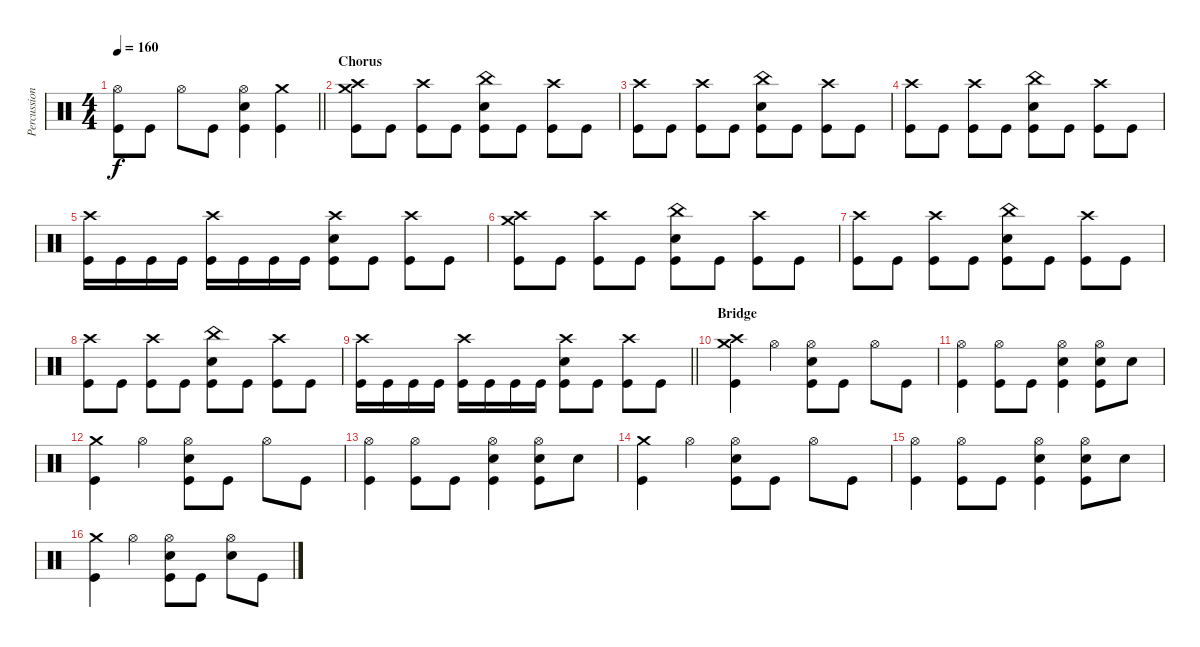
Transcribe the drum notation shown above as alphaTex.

\track ("Percussion" "Percussion") {instrument percussion}
\staff {score}
\articulation defaults
\ts (4 4)
\tempo 160
\clef neutral
\barLineRight lightlight
\ks c
("Hi-Hat (open)" "Kick (hit)").8{dy f} "Kick (hit)".8 "Hi-Hat (open)".8 "Kick (hit)".8 ("Hi-Hat (open)" "Electric Snare (hit)" "Kick (hit)").4 ("Crash medium (hit)" "Kick (hit)").4 |
\section ("" "Chorus")
("Crash medium (hit)" "Crash high (hit)" "Kick (hit)").8 "Kick (hit)".8 ("Crash high (hit)" "Kick (hit)").8 "Kick (hit)".8 ("China (hit)" "Electric Snare (hit)" "Kick (hit)").8 "Kick (hit)".8 ("Crash high (hit)" "Kick (hit)").8 "Kick (hit)".8 |
("Crash high (hit)" "Kick (hit)").8 "Kick (hit)".8 ("Crash high (hit)" "Kick (hit)").8 "Kick (hit)".8 ("China (hit)" "Electric Snare (hit)" "Kick (hit)").8 "Kick (hit)".8 ("Crash high (hit)" "Kick (hit)").8 "Kick (hit)".8 |
("Crash high (hit)" "Kick (hit)").8 "Kick (hit)".8 ("Crash high (hit)" "Kick (hit)").8 "Kick (hit)".8 ("China (hit)" "Electric Snare (hit)" "Kick (hit)").8 "Kick (hit)".8 ("Crash high (hit)" "Kick (hit)").8 "Kick (hit)".8 |
("Crash high (hit)" "Kick (hit)").16 "Kick (hit)".16 "Kick (hit)".16 "Kick (hit)".16 ("Crash high (hit)" "Kick (hit)").16 "Kick (hit)".16 "Kick (hit)".16 "Kick (hit)".16 ("Crash high (hit)" "Electric Snare (hit)" "Kick (hit)").8 "Kick (hit)".8 ("Crash high (hit)" "Kick (hit)").8 "Kick (hit)".8 |
("Crash medium (hit)" "Crash high (hit)" "Kick (hit)").8 "Kick (hit)".8 ("Crash high (hit)" "Kick (hit)").8 "Kick (hit)".8 ("China (hit)" "Electric Snare (hit)" "Kick (hit)").8 "Kick (hit)".8 ("Crash high (hit)" "Kick (hit)").8 "Kick (hit)".8 |
("Crash high (hit)" "Kick (hit)").8 "Kick (hit)".8 ("Crash high (hit)" "Kick (hit)").8 "Kick (hit)".8 ("China (hit)" "Electric Snare (hit)" "Kick (hit)").8 "Kick (hit)".8 ("Crash high (hit)" "Kick (hit)").8 "Kick (hit)".8 |
("Crash high (hit)" "Kick (hit)").8 "Kick (hit)".8 ("Crash high (hit)" "Kick (hit)").8 "Kick (hit)".8 ("China (hit)" "Electric Snare (hit)" "Kick (hit)").8 "Kick (hit)".8 ("Crash high (hit)" "Kick (hit)").8 "Kick (hit)".8 |
\barLineRight lightlight
("Crash high (hit)" "Kick (hit)").16 "Kick (hit)".16 "Kick (hit)".16 "Kick (hit)".16 ("Crash high (hit)" "Kick (hit)").16 "Kick (hit)".16 "Kick (hit)".16 "Kick (hit)".16 ("Crash high (hit)" "Electric Snare (hit)" "Kick (hit)").8 "Kick (hit)".8 ("Crash high (hit)" "Kick (hit)").8 "Kick (hit)".8 |
\section ("" "Bridge")
("Crash high (hit)" "Crash medium (hit)" "Kick (hit)").4 "Hi-Hat (open)".4 ("Hi-Hat (open)" "Electric Snare (hit)" "Kick (hit)").8 "Kick (hit)".8 "Hi-Hat (open)".8 "Kick (hit)".8 |
("Hi-Hat (open)" "Kick (hit)").4 ("Hi-Hat (open)" "Kick (hit)").8 "Kick (hit)".8 ("Hi-Hat (open)" "Electric Snare (hit)" "Kick (hit)").4 ("Hi-Hat (open)" "Electric Snare (hit)" "Kick (hit)").8 "Electric Snare (hit)".8 |
("Crash medium (hit)" "Kick (hit)").4 "Hi-Hat (open)".4 ("Hi-Hat (open)" "Electric Snare (hit)" "Kick (hit)").8 "Kick (hit)".8 "Hi-Hat (open)".8 "Kick (hit)".8 |
("Hi-Hat (open)" "Kick (hit)").4 ("Hi-Hat (open)" "Kick (hit)").8 "Kick (hit)".8 ("Hi-Hat (open)" "Electric Snare (hit)" "Kick (hit)").4 ("Hi-Hat (open)" "Electric Snare (hit)" "Kick (hit)").8 "Electric Snare (hit)".8 |
("Crash medium (hit)" "Kick (hit)").4 "Hi-Hat (open)".4 ("Hi-Hat (open)" "Electric Snare (hit)" "Kick (hit)").8 "Kick (hit)".8 "Hi-Hat (open)".8 "Kick (hit)".8 |
("Hi-Hat (open)" "Kick (hit)").4 ("Hi-Hat (open)" "Kick (hit)").8 "Kick (hit)".8 ("Hi-Hat (open)" "Electric Snare (hit)" "Kick (hit)").4 ("Hi-Hat (open)" "Electric Snare (hit)" "Kick (hit)").8 "Electric Snare (hit)".8 |
("Crash medium (hit)" "Kick (hit)").4 "Hi-Hat (open)".4 ("Hi-Hat (open)" "Electric Snare (hit)" "Kick (hit)").8 "Kick (hit)".8 ("Hi-Hat (open)" "Electric Snare (hit)").8 "Kick (hit)".8
